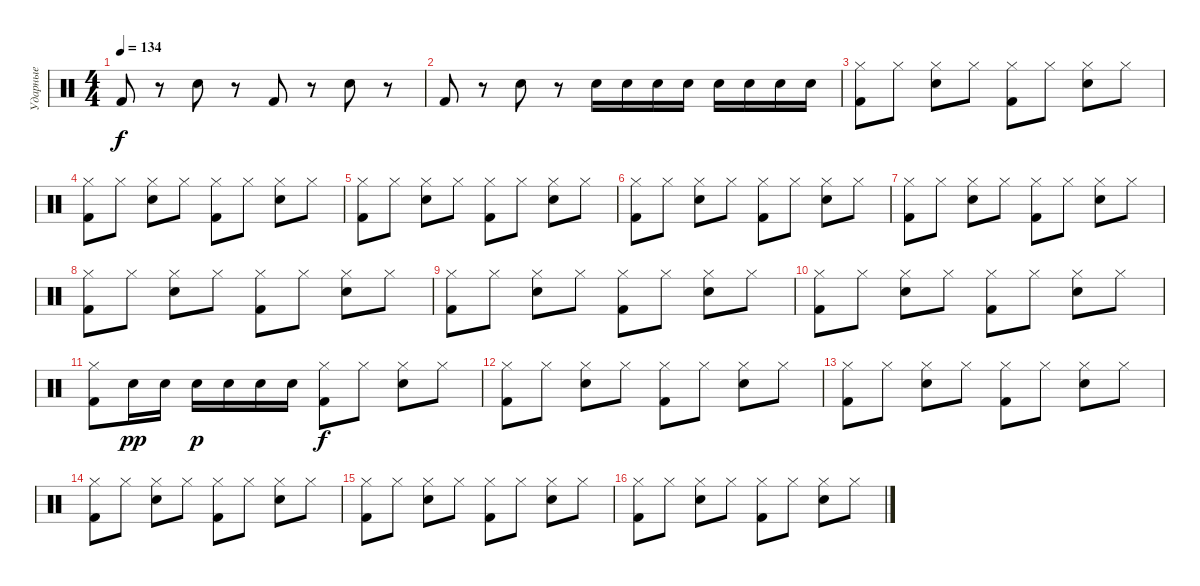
\track ("Ударные" "Ударные") {instrument percussion}
\staff {score}
\articulation defaults
\ts (4 4)
\tempo 134
\clef neutral
\ks c "Kick (hit) 2".8{dy f}
r.8 "Snare (hit) 2".8 r.8 "Kick (hit) 2".8 r.8 "Snare (hit) 2".8 r.8 |
"Kick (hit) 2".8 r.8 "Snare (hit) 2".8 r.8 "Snare (hit) 2".16 "Snare (hit) 2".16 "Snare (hit) 2".16 "Snare (hit) 2".16 "Snare (hit) 2".16 "Snare (hit) 2".16 "Snare (hit) 2".16 "Snare (hit) 2".16 |
("Hi-Hat (closed)" "Kick (hit) 2").8 "Hi-Hat (closed)".8 ("Hi-Hat (closed)" "Snare (hit) 2").8 "Hi-Hat (closed)".8 ("Hi-Hat (closed)" "Kick (hit) 2").8 "Hi-Hat (closed)".8 ("Hi-Hat (closed)" "Snare (hit) 2").8 "Hi-Hat (closed)".8 |
("Hi-Hat (closed)" "Kick (hit) 2").8 "Hi-Hat (closed)".8 ("Hi-Hat (closed)" "Snare (hit) 2").8 "Hi-Hat (closed)".8 ("Hi-Hat (closed)" "Kick (hit) 2").8 "Hi-Hat (closed)".8 ("Hi-Hat (closed)" "Snare (hit) 2").8 "Hi-Hat (closed)".8 |
("Hi-Hat (closed)" "Kick (hit) 2").8 "Hi-Hat (closed)".8 ("Hi-Hat (closed)" "Snare (hit) 2").8 "Hi-Hat (closed)".8 ("Hi-Hat (closed)" "Kick (hit) 2").8 "Hi-Hat (closed)".8 ("Hi-Hat (closed)" "Snare (hit) 2").8 "Hi-Hat (closed)".8 |
("Hi-Hat (closed)" "Kick (hit) 2").8 "Hi-Hat (closed)".8 ("Hi-Hat (closed)" "Snare (hit) 2").8 "Hi-Hat (closed)".8 ("Hi-Hat (closed)" "Kick (hit) 2").8 "Hi-Hat (closed)".8 ("Hi-Hat (closed)" "Snare (hit) 2").8 "Hi-Hat (closed)".8 |
("Hi-Hat (closed)" "Kick (hit) 2").8 "Hi-Hat (closed)".8 ("Hi-Hat (closed)" "Snare (hit) 2").8 "Hi-Hat (closed)".8 ("Hi-Hat (closed)" "Kick (hit) 2").8 "Hi-Hat (closed)".8 ("Hi-Hat (closed)" "Snare (hit) 2").8 "Hi-Hat (closed)".8 |
("Hi-Hat (closed)" "Kick (hit) 2").8 "Hi-Hat (closed)".8 ("Hi-Hat (closed)" "Snare (hit) 2").8 "Hi-Hat (closed)".8 ("Hi-Hat (closed)" "Kick (hit) 2").8 "Hi-Hat (closed)".8 ("Hi-Hat (closed)" "Snare (hit) 2").8 "Hi-Hat (closed)".8 |
("Hi-Hat (closed)" "Kick (hit) 2").8 "Hi-Hat (closed)".8 ("Hi-Hat (closed)" "Snare (hit) 2").8 "Hi-Hat (closed)".8 ("Hi-Hat (closed)" "Kick (hit) 2").8 "Hi-Hat (closed)".8 ("Hi-Hat (closed)" "Snare (hit) 2").8 "Hi-Hat (closed)".8 |
("Hi-Hat (closed)" "Kick (hit) 2").8 "Hi-Hat (closed)".8 ("Hi-Hat (closed)" "Snare (hit) 2").8 "Hi-Hat (closed)".8 ("Hi-Hat (closed)" "Kick (hit) 2").8 "Hi-Hat (closed)".8 ("Hi-Hat (closed)" "Snare (hit) 2").8 "Hi-Hat (closed)".8 |
("Hi-Hat (closed)" "Kick (hit) 2").8 "Snare (hit) 2".16{dy pp} "Snare (hit) 2".16 "Snare (hit) 2".16{dy p} "Snare (hit) 2".16 "Snare (hit) 2".16 "Snare (hit) 2".16 ("Hi-Hat (closed)" "Kick (hit) 2").8{dy f} "Hi-Hat (closed)".8 ("Hi-Hat (closed)" "Snare (hit) 2").8 "Hi-Hat (closed)".8 |
("Hi-Hat (closed)" "Kick (hit) 2").8 "Hi-Hat (closed)".8 ("Hi-Hat (closed)" "Snare (hit) 2").8 "Hi-Hat (closed)".8 ("Hi-Hat (closed)" "Kick (hit) 2").8 "Hi-Hat (closed)".8 ("Hi-Hat (closed)" "Snare (hit) 2").8 "Hi-Hat (closed)".8 |
("Hi-Hat (closed)" "Kick (hit) 2").8 "Hi-Hat (closed)".8 ("Hi-Hat (closed)" "Snare (hit) 2").8 "Hi-Hat (closed)".8 ("Hi-Hat (closed)" "Kick (hit) 2").8 "Hi-Hat (closed)".8 ("Hi-Hat (closed)" "Snare (hit) 2").8 "Hi-Hat (closed)".8 |
("Hi-Hat (closed)" "Kick (hit) 2").8 "Hi-Hat (closed)".8 ("Hi-Hat (closed)" "Snare (hit) 2").8 "Hi-Hat (closed)".8 ("Hi-Hat (closed)" "Kick (hit) 2").8 "Hi-Hat (closed)".8 ("Hi-Hat (closed)" "Snare (hit) 2").8 "Hi-Hat (closed)".8 |
("Hi-Hat (closed)" "Kick (hit) 2").8 "Hi-Hat (closed)".8 ("Hi-Hat (closed)" "Snare (hit) 2").8 "Hi-Hat (closed)".8 ("Hi-Hat (closed)" "Kick (hit) 2").8 "Hi-Hat (closed)".8 ("Hi-Hat (closed)" "Snare (hit) 2").8 "Hi-Hat (closed)".8 |
("Hi-Hat (closed)" "Kick (hit) 2").8 "Hi-Hat (closed)".8 ("Hi-Hat (closed)" "Snare (hit) 2").8 "Hi-Hat (closed)".8 ("Hi-Hat (closed)" "Kick (hit) 2").8 "Hi-Hat (closed)".8 ("Hi-Hat (closed)" "Snare (hit) 2").8 "Hi-Hat (closed)".8
